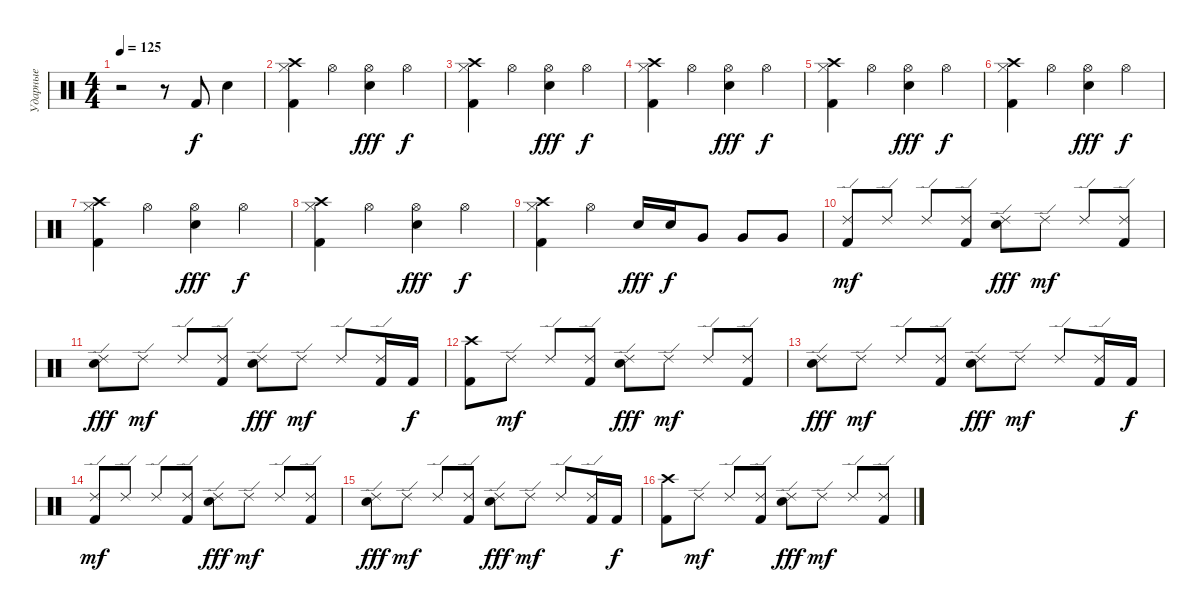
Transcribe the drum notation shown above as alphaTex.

\track ("Ударные" "Ударные") {instrument percussion}
\staff {score}
\articulation defaults
\ts (4 4)
\tempo 125
\clef neutral
\ks c
r.2{dy f} r.8 "Kick (hit) 2".8 "Snare (hit) 2".4 |
("Crash high (hit)" "Hi-Hat (closed)" "Kick (hit) 2").4 "Hi-Hat (open)".4 ("Hi-Hat (open)" "Electric Snare (hit)").4{dy fff} "Hi-Hat (open)".4{dy f} |
("Crash high (hit)" "Hi-Hat (closed)" "Kick (hit) 2").4 "Hi-Hat (open)".4 ("Hi-Hat (open)" "Electric Snare (hit)").4{dy fff} "Hi-Hat (open)".4{dy f} |
("Crash high (hit)" "Hi-Hat (closed)" "Kick (hit) 2").4 "Hi-Hat (open)".4 ("Hi-Hat (open)" "Electric Snare (hit)").4{dy fff} "Hi-Hat (open)".4{dy f} |
("Crash high (hit)" "Hi-Hat (closed)" "Kick (hit) 2").4 "Hi-Hat (open)".4 ("Hi-Hat (open)" "Electric Snare (hit)").4{dy fff} "Hi-Hat (open)".4{dy f} |
("Crash high (hit)" "Hi-Hat (closed)" "Kick (hit) 2").4 "Hi-Hat (open)".4 ("Hi-Hat (open)" "Electric Snare (hit)").4{dy fff} "Hi-Hat (open)".4{dy f} |
("Crash high (hit)" "Hi-Hat (closed)" "Kick (hit) 2").4 "Hi-Hat (open)".4 ("Hi-Hat (open)" "Electric Snare (hit)").4{dy fff} "Hi-Hat (open)".4{dy f} |
("Crash high (hit)" "Hi-Hat (closed)" "Kick (hit) 2").4 "Hi-Hat (open)".4 ("Hi-Hat (open)" "Electric Snare (hit)").4{dy fff} "Hi-Hat (open)".4{dy f} |
("Crash high (hit)" "Hi-Hat (closed)" "Kick (hit) 2").4 "Hi-Hat (open)".4 "Electric Snare (hit)".16{dy fff} "Electric Snare (hit)".16{dy f} "Very Low Tom (hit)".8 "Very Low Tom (hit)".8 "Very Low Tom (hit)".8 |
("Ride (edge) 2" "Kick (hit) 2").8{dy mf} "Ride (edge) 2".8 "Ride (edge) 2".8 ("Ride (edge) 2" "Kick (hit) 2").8 ("Ride (edge) 2" "Electric Snare (hit)").8{dy fff} "Ride (edge) 2".8{dy mf} "Ride (edge) 2".8 ("Ride (edge) 2" "Kick (hit) 2").8 |
("Ride (edge) 2" "Electric Snare (hit)").8{dy fff} "Ride (edge) 2".8{dy mf} "Ride (edge) 2".8 ("Ride (edge) 2" "Kick (hit) 2").8 ("Ride (edge) 2" "Electric Snare (hit)").8{dy fff} "Ride (edge) 2".8{dy mf} "Ride (edge) 2".8 ("Ride (edge) 2" "Kick (hit) 2").16 "Kick (hit) 2".16{dy f} |
("Crash high (hit)" "Kick (hit) 2").8 "Ride (edge) 2".8{dy mf} "Ride (edge) 2".8 ("Ride (edge) 2" "Kick (hit) 2").8 ("Ride (edge) 2" "Electric Snare (hit)").8{dy fff} "Ride (edge) 2".8{dy mf} "Ride (edge) 2".8 ("Ride (edge) 2" "Kick (hit) 2").8 |
("Ride (edge) 2" "Electric Snare (hit)").8{dy fff} "Ride (edge) 2".8{dy mf} "Ride (edge) 2".8 ("Ride (edge) 2" "Kick (hit) 2").8 ("Ride (edge) 2" "Electric Snare (hit)").8{dy fff} "Ride (edge) 2".8{dy mf} "Ride (edge) 2".8 ("Ride (edge) 2" "Kick (hit) 2").16 "Kick (hit) 2".16{dy f} |
("Ride (edge) 2" "Kick (hit) 2").8{dy mf} "Ride (edge) 2".8 "Ride (edge) 2".8 ("Ride (edge) 2" "Kick (hit) 2").8 ("Ride (edge) 2" "Electric Snare (hit)").8{dy fff} "Ride (edge) 2".8{dy mf} "Ride (edge) 2".8 ("Ride (edge) 2" "Kick (hit) 2").8 |
("Ride (edge) 2" "Electric Snare (hit)").8{dy fff} "Ride (edge) 2".8{dy mf} "Ride (edge) 2".8 ("Ride (edge) 2" "Kick (hit) 2").8 ("Ride (edge) 2" "Electric Snare (hit)").8{dy fff} "Ride (edge) 2".8{dy mf} "Ride (edge) 2".8 ("Ride (edge) 2" "Kick (hit) 2").16 "Kick (hit) 2".16{dy f} |
("Crash high (hit)" "Kick (hit) 2").8 "Ride (edge) 2".8{dy mf} "Ride (edge) 2".8 ("Ride (edge) 2" "Kick (hit) 2").8 ("Ride (edge) 2" "Electric Snare (hit)").8{dy fff} "Ride (edge) 2".8{dy mf} "Ride (edge) 2".8 ("Ride (edge) 2" "Kick (hit) 2").8
